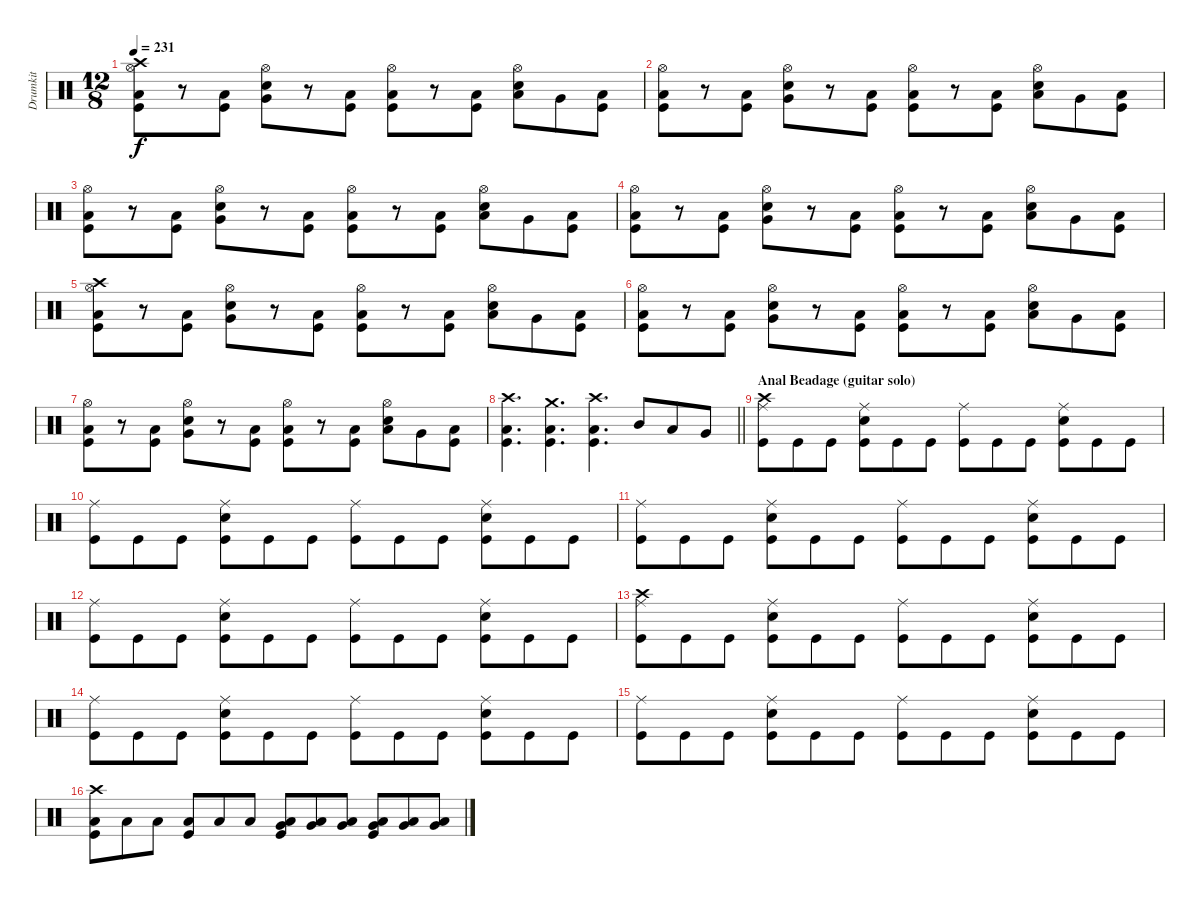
\track ("Drumkit" "Drumkit") {instrument percussion}
\staff {score}
\articulation defaults
\ts (12 8)
\tempo 231
\clef neutral
\ks c
("Crash high (hit)" "Hi-Hat (open)" "Low Floor Tom (hit)" "Kick (hit)").8{dy f} r.8 ("Low Floor Tom (hit)" "Kick (hit)").8 ("Hi-Hat (open)" "Very Low Tom (hit)" "Snare (hit) 2").8 r.8 ("Low Floor Tom (hit)" "Kick (hit)").8 ("Hi-Hat (open)" "Low Floor Tom (hit)" "Kick (hit)").8 r.8 ("Low Floor Tom (hit)" "Kick (hit)").8 ("Hi-Hat (open)" "Low Tom (hit)" "Snare (hit) 2").8 "Very Low Tom (hit)".8 ("Low Floor Tom (hit)" "Kick (hit)").8 |
("Hi-Hat (open)" "Low Floor Tom (hit)" "Kick (hit)").8 r.8 ("Low Floor Tom (hit)" "Kick (hit)").8 ("Hi-Hat (open)" "Very Low Tom (hit)" "Snare (hit) 2").8 r.8 ("Low Floor Tom (hit)" "Kick (hit)").8 ("Hi-Hat (open)" "Low Floor Tom (hit)" "Kick (hit)").8 r.8 ("Low Floor Tom (hit)" "Kick (hit)").8 ("Hi-Hat (open)" "Low Tom (hit)" "Snare (hit) 2").8 "Very Low Tom (hit)".8 ("Low Floor Tom (hit)" "Kick (hit)").8 |
("Hi-Hat (open)" "Low Floor Tom (hit)" "Kick (hit)").8 r.8 ("Low Floor Tom (hit)" "Kick (hit)").8 ("Hi-Hat (open)" "Very Low Tom (hit)" "Snare (hit) 2").8 r.8 ("Low Floor Tom (hit)" "Kick (hit)").8 ("Hi-Hat (open)" "Low Floor Tom (hit)" "Kick (hit)").8 r.8 ("Low Floor Tom (hit)" "Kick (hit)").8 ("Hi-Hat (open)" "Low Tom (hit)" "Snare (hit) 2").8 "Very Low Tom (hit)".8 ("Low Floor Tom (hit)" "Kick (hit)").8 |
("Hi-Hat (open)" "Low Floor Tom (hit)" "Kick (hit)").8 r.8 ("Low Floor Tom (hit)" "Kick (hit)").8 ("Hi-Hat (open)" "Very Low Tom (hit)" "Snare (hit) 2").8 r.8 ("Low Floor Tom (hit)" "Kick (hit)").8 ("Hi-Hat (open)" "Low Floor Tom (hit)" "Kick (hit)").8 r.8 ("Low Floor Tom (hit)" "Kick (hit)").8 ("Hi-Hat (open)" "Low Tom (hit)" "Snare (hit) 2").8 "Very Low Tom (hit)".8 ("Low Floor Tom (hit)" "Kick (hit)").8 |
("Crash high (hit)" "Hi-Hat (open)" "Low Floor Tom (hit)" "Kick (hit)").8 r.8 ("Low Floor Tom (hit)" "Kick (hit)").8 ("Hi-Hat (open)" "Very Low Tom (hit)" "Snare (hit) 2").8 r.8 ("Low Floor Tom (hit)" "Kick (hit)").8 ("Hi-Hat (open)" "Low Floor Tom (hit)" "Kick (hit)").8 r.8 ("Low Floor Tom (hit)" "Kick (hit)").8 ("Hi-Hat (open)" "Low Tom (hit)" "Snare (hit) 2").8 "Very Low Tom (hit)".8 ("Low Floor Tom (hit)" "Kick (hit)").8 |
("Hi-Hat (open)" "Low Floor Tom (hit)" "Kick (hit)").8 r.8 ("Low Floor Tom (hit)" "Kick (hit)").8 ("Hi-Hat (open)" "Very Low Tom (hit)" "Snare (hit) 2").8 r.8 ("Low Floor Tom (hit)" "Kick (hit)").8 ("Hi-Hat (open)" "Low Floor Tom (hit)" "Kick (hit)").8 r.8 ("Low Floor Tom (hit)" "Kick (hit)").8 ("Hi-Hat (open)" "Low Tom (hit)" "Snare (hit) 2").8 "Very Low Tom (hit)".8 ("Low Floor Tom (hit)" "Kick (hit)").8 |
("Hi-Hat (open)" "Low Floor Tom (hit)" "Kick (hit)").8 r.8 ("Low Floor Tom (hit)" "Kick (hit)").8 ("Hi-Hat (open)" "Very Low Tom (hit)" "Snare (hit) 2").8 r.8 ("Low Floor Tom (hit)" "Kick (hit)").8 ("Hi-Hat (open)" "Low Floor Tom (hit)" "Kick (hit)").8 r.8 ("Low Floor Tom (hit)" "Kick (hit)").8 ("Hi-Hat (open)" "Low Tom (hit)" "Snare (hit) 2").8 "Very Low Tom (hit)".8 ("Low Floor Tom (hit)" "Kick (hit)").8 |
\barLineRight lightlight
("Crash high (hit)" "Low Floor Tom (hit)" "Kick (hit)").4{d} ("Crash medium (hit)" "Low Floor Tom (hit)" "Kick (hit)").4{d} ("Crash high (hit)" "Low Floor Tom (hit)" "Kick (hit)").4{d} "Mid Tom (hit)".8 "Low Tom (hit)".8 "Very Low Tom (hit)".8 |
\section ("" "Anal Beadage (guitar solo)")
("Crash high (hit)" "Ride (middle)" "Kick (hit)").8 "Kick (hit)".8 "Kick (hit)".8 ("Ride (middle)" "Snare (hit) 2" "Kick (hit)").8 "Kick (hit)".8 "Kick (hit)".8 ("Ride (middle)" "Kick (hit)").8 "Kick (hit)".8 "Kick (hit)".8 ("Ride (middle)" "Snare (hit) 2" "Kick (hit)").8 "Kick (hit)".8 "Kick (hit)".8 |
("Ride (middle)" "Kick (hit)").8 "Kick (hit)".8 "Kick (hit)".8 ("Ride (middle)" "Snare (hit) 2" "Kick (hit)").8 "Kick (hit)".8 "Kick (hit)".8 ("Ride (middle)" "Kick (hit)").8 "Kick (hit)".8 "Kick (hit)".8 ("Ride (middle)" "Snare (hit) 2" "Kick (hit)").8 "Kick (hit)".8 "Kick (hit)".8 |
("Ride (middle)" "Kick (hit)").8 "Kick (hit)".8 "Kick (hit)".8 ("Ride (middle)" "Snare (hit) 2" "Kick (hit)").8 "Kick (hit)".8 "Kick (hit)".8 ("Ride (middle)" "Kick (hit)").8 "Kick (hit)".8 "Kick (hit)".8 ("Ride (middle)" "Snare (hit) 2" "Kick (hit)").8 "Kick (hit)".8 "Kick (hit)".8 |
("Ride (middle)" "Kick (hit)").8 "Kick (hit)".8 "Kick (hit)".8 ("Ride (middle)" "Snare (hit) 2" "Kick (hit)").8 "Kick (hit)".8 "Kick (hit)".8 ("Ride (middle)" "Kick (hit)").8 "Kick (hit)".8 "Kick (hit)".8 ("Ride (middle)" "Snare (hit) 2" "Kick (hit)").8 "Kick (hit)".8 "Kick (hit)".8 |
("Crash high (hit)" "Ride (middle)" "Kick (hit)").8 "Kick (hit)".8 "Kick (hit)".8 ("Ride (middle)" "Snare (hit) 2" "Kick (hit)").8 "Kick (hit)".8 "Kick (hit)".8 ("Ride (middle)" "Kick (hit)").8 "Kick (hit)".8 "Kick (hit)".8 ("Ride (middle)" "Snare (hit) 2" "Kick (hit)").8 "Kick (hit)".8 "Kick (hit)".8 |
("Ride (middle)" "Kick (hit)").8 "Kick (hit)".8 "Kick (hit)".8 ("Ride (middle)" "Snare (hit) 2" "Kick (hit)").8 "Kick (hit)".8 "Kick (hit)".8 ("Ride (middle)" "Kick (hit)").8 "Kick (hit)".8 "Kick (hit)".8 ("Ride (middle)" "Snare (hit) 2" "Kick (hit)").8 "Kick (hit)".8 "Kick (hit)".8 |
("Ride (middle)" "Kick (hit)").8 "Kick (hit)".8 "Kick (hit)".8 ("Ride (middle)" "Snare (hit) 2" "Kick (hit)").8 "Kick (hit)".8 "Kick (hit)".8 ("Ride (middle)" "Kick (hit)").8 "Kick (hit)".8 "Kick (hit)".8 ("Ride (middle)" "Snare (hit) 2" "Kick (hit)").8 "Kick (hit)".8 "Kick (hit)".8 |
("Crash high (hit)" "Low Floor Tom (hit)" "Kick (hit)").8 "Low Floor Tom (hit)".8 "Low Floor Tom (hit)".8 ("Low Floor Tom (hit)" "Kick (hit)").8 "Low Floor Tom (hit)".8 "Low Floor Tom (hit)".8 ("Very Low Tom (hit)" "Low Floor Tom (hit)" "Kick (hit)").8 ("Very Low Tom (hit)" "Low Floor Tom (hit)").8 ("Very Low Tom (hit)" "Low Floor Tom (hit)").8 ("Very Low Tom (hit)" "Low Floor Tom (hit)" "Kick (hit)").8 ("Very Low Tom (hit)" "Low Floor Tom (hit)").8 ("Very Low Tom (hit)" "Low Floor Tom (hit)").8
